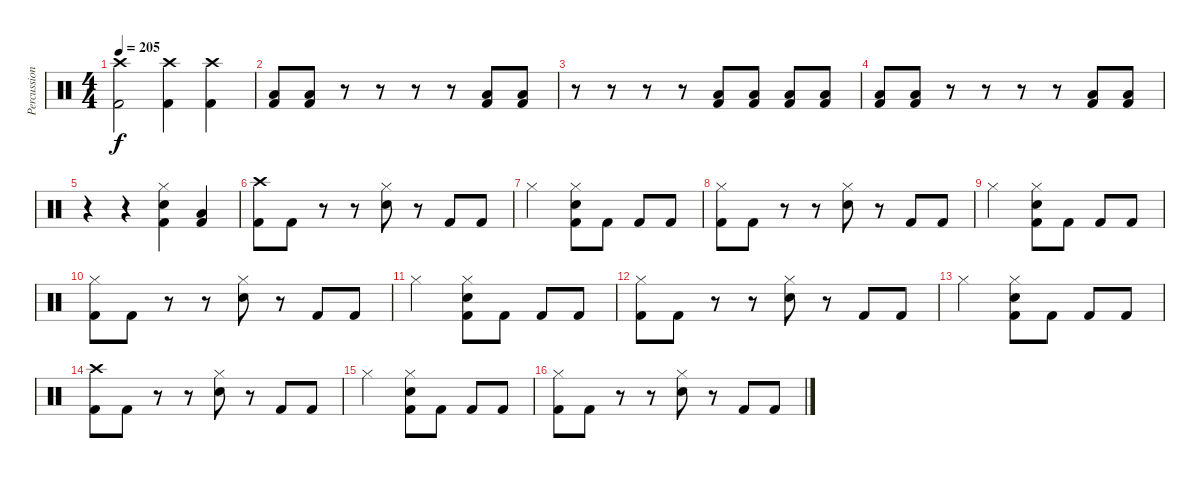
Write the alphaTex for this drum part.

\track ("Percussion" "Percussion") {instrument percussion}
\staff {score}
\articulation defaults
\ts (4 4)
\tempo 205
\clef neutral
\ks c
("Crash high (hit)" "Kick (hit) 2").2{dy f} ("Crash high (hit)" "Kick (hit) 2").4 ("Crash high (hit)" "Kick (hit) 2").4 |
("Low Floor Tom (hit)" "Kick (hit) 2").8 ("Low Floor Tom (hit)" "Kick (hit) 2").8 r.8 r.8 r.8 r.8 ("Low Floor Tom (hit)" "Kick (hit) 2").8 ("Low Floor Tom (hit)" "Kick (hit) 2").8 |
r.8 r.8 r.8 r.8 ("Low Floor Tom (hit)" "Kick (hit) 2").8 ("Low Floor Tom (hit)" "Kick (hit) 2").8 ("Low Floor Tom (hit)" "Kick (hit) 2").8 ("Low Floor Tom (hit)" "Kick (hit) 2").8 |
("Low Floor Tom (hit)" "Kick (hit) 2").8 ("Low Floor Tom (hit)" "Kick (hit) 2").8 r.8 r.8 r.8 r.8 ("Low Floor Tom (hit)" "Kick (hit) 2").8 ("Low Floor Tom (hit)" "Kick (hit) 2").8 |
r.4 r.4 ("Electric Snare (hit)" "Hi-Hat (closed)" "Kick (hit) 2").4 ("Low Floor Tom (hit)" "Kick (hit) 2").4 |
("Crash high (hit)" "Kick (hit) 2").8 "Kick (hit) 2".8 r.8 r.8 ("Hi-Hat (closed)" "Electric Snare (hit)").8 r.8 "Kick (hit) 2".8 "Kick (hit) 2".8 |
"Hi-Hat (closed)".2 ("Hi-Hat (closed)" "Electric Snare (hit)" "Kick (hit) 2").8 "Kick (hit) 2".8 "Kick (hit) 2".8 "Kick (hit) 2".8 |
("Hi-Hat (closed)" "Kick (hit) 2").8 "Kick (hit) 2".8 r.8 r.8 ("Hi-Hat (closed)" "Electric Snare (hit)").8 r.8 "Kick (hit) 2".8 "Kick (hit) 2".8 |
"Hi-Hat (closed)".2 ("Hi-Hat (closed)" "Electric Snare (hit)" "Kick (hit) 2").8 "Kick (hit) 2".8 "Kick (hit) 2".8 "Kick (hit) 2".8 |
("Hi-Hat (closed)" "Kick (hit) 2").8 "Kick (hit) 2".8 r.8 r.8 ("Hi-Hat (closed)" "Electric Snare (hit)").8 r.8 "Kick (hit) 2".8 "Kick (hit) 2".8 |
"Hi-Hat (closed)".2 ("Hi-Hat (closed)" "Electric Snare (hit)" "Kick (hit) 2").8 "Kick (hit) 2".8 "Kick (hit) 2".8 "Kick (hit) 2".8 |
("Hi-Hat (closed)" "Kick (hit) 2").8 "Kick (hit) 2".8 r.8 r.8 ("Hi-Hat (closed)" "Electric Snare (hit)").8 r.8 "Kick (hit) 2".8 "Kick (hit) 2".8 |
"Hi-Hat (closed)".2 ("Hi-Hat (closed)" "Electric Snare (hit)" "Kick (hit) 2").8 "Kick (hit) 2".8 "Kick (hit) 2".8 "Kick (hit) 2".8 |
("Crash high (hit)" "Kick (hit) 2").8 "Kick (hit) 2".8 r.8 r.8 ("Hi-Hat (closed)" "Electric Snare (hit)").8 r.8 "Kick (hit) 2".8 "Kick (hit) 2".8 |
"Hi-Hat (closed)".2 ("Hi-Hat (closed)" "Electric Snare (hit)" "Kick (hit) 2").8 "Kick (hit) 2".8 "Kick (hit) 2".8 "Kick (hit) 2".8 |
("Hi-Hat (closed)" "Kick (hit) 2").8 "Kick (hit) 2".8 r.8 r.8 ("Hi-Hat (closed)" "Electric Snare (hit)").8 r.8 "Kick (hit) 2".8 "Kick (hit) 2".8
